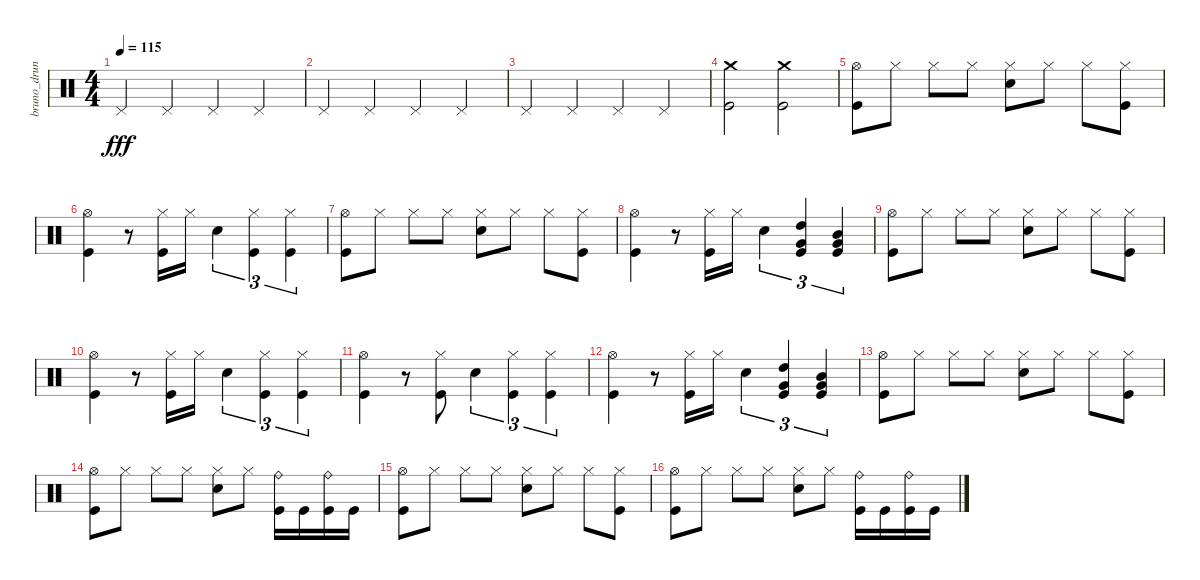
\track ("bruno_druns" "bruno_drun") {instrument percussion}
\staff {score}
\articulation defaults
\ts (4 4)
\tempo 115
\clef neutral
\ks c "Pedal Hi-Hat (hit)".4{dy fff} "Pedal Hi-Hat (hit)".4 "Pedal Hi-Hat (hit)".4 "Pedal Hi-Hat (hit)".4
|
"Pedal Hi-Hat (hit)".4 "Pedal Hi-Hat (hit)".4 "Pedal Hi-Hat (hit)".4 "Pedal Hi-Hat (hit)".4 |
"Pedal Hi-Hat (hit)".4 "Pedal Hi-Hat (hit)".4 "Pedal Hi-Hat (hit)".4 "Pedal Hi-Hat (hit)".4 |
("Kick (hit)" "Crash medium (hit)").2 ("Kick (hit)" "Crash medium (hit)").2 |
("Kick (hit)" "Hi-Hat (open)").8 "Hi-Hat (closed)".8 "Hi-Hat (closed)".8 "Hi-Hat (closed)".8 ("Electric Snare (hit)" "Hi-Hat (closed)").8 "Hi-Hat (closed)".8 "Hi-Hat (closed)".8 ("Kick (hit)" "Hi-Hat (closed)").8 |
("Kick (hit)" "Hi-Hat (open)").4 r.8 ("Kick (hit)" "Hi-Hat (closed)").16 "Hi-Hat (closed)".16 "Electric Snare (hit)".4{tu (3 2)} ("Kick (hit)" "Hi-Hat (closed)").4{tu (3 2)} ("Kick (hit)" "Hi-Hat (closed)").4{tu (3 2)} |
("Kick (hit)" "Hi-Hat (open)").8 "Hi-Hat (closed)".8 "Hi-Hat (closed)".8 "Hi-Hat (closed)".8 ("Electric Snare (hit)" "Hi-Hat (closed)").8 "Hi-Hat (closed)".8 "Hi-Hat (closed)".8 ("Kick (hit)" "Hi-Hat (closed)").8 |
("Kick (hit)" "Hi-Hat (open)").4 r.8 ("Kick (hit)" "Hi-Hat (closed)").16 "Hi-Hat (closed)".16 "Electric Snare (hit)".4{tu (3 2)} ("Kick (hit)" "Very Low Tom (hit)" "High Tom (hit)").4{tu (3 2)} ("Kick (hit)" "Very Low Tom (hit)" "Mid Tom (hit)").4{tu (3 2)} |
("Kick (hit)" "Hi-Hat (open)").8 "Hi-Hat (closed)".8 "Hi-Hat (closed)".8 "Hi-Hat (closed)".8 ("Electric Snare (hit)" "Hi-Hat (closed)").8 "Hi-Hat (closed)".8 "Hi-Hat (closed)".8 ("Kick (hit)" "Hi-Hat (closed)").8 |
("Kick (hit)" "Hi-Hat (open)").4 r.8 ("Kick (hit)" "Hi-Hat (closed)").16 "Hi-Hat (closed)".16 "Electric Snare (hit)".4{tu (3 2)} ("Kick (hit)" "Hi-Hat (closed)").4{tu (3 2)} ("Kick (hit)" "Hi-Hat (closed)").4{tu (3 2)} |
("Kick (hit)" "Hi-Hat (open)").4 r.8 ("Kick (hit)" "Hi-Hat (closed)").8 "Electric Snare (hit)".4{tu (3 2)} ("Kick (hit)" "Hi-Hat (closed)").4{tu (3 2)} ("Kick (hit)" "Hi-Hat (closed)").4{tu (3 2)} |
("Kick (hit)" "Hi-Hat (open)").4 r.8 ("Kick (hit)" "Hi-Hat (closed)").16 "Hi-Hat (closed)".16 "Electric Snare (hit)".4{tu (3 2)} ("Kick (hit)" "Very Low Tom (hit)" "High Tom (hit)").4{tu (3 2)} ("Kick (hit)" "Very Low Tom (hit)" "Mid Tom (hit)").4{tu (3 2)} |
("Kick (hit)" "Hi-Hat (open)").8 "Hi-Hat (closed)".8 "Hi-Hat (closed)".8 "Hi-Hat (closed)".8 ("Electric Snare (hit)" "Hi-Hat (closed)").8 "Hi-Hat (closed)".8 "Hi-Hat (closed)".8 ("Kick (hit)" "Hi-Hat (closed)").8 |
("Kick (hit)" "Hi-Hat (open)").8 "Hi-Hat (closed)".8 "Hi-Hat (closed)".8 "Hi-Hat (closed)".8 ("Electric Snare (hit)" "Hi-Hat (closed)").8 "Hi-Hat (closed)".8 ("Kick (hit)" "Ride (bell)").16 "Kick (hit)".16 ("Kick (hit)" "Ride (bell)").16 "Kick (hit)".16 |
("Kick (hit)" "Hi-Hat (open)").8 "Hi-Hat (closed)".8 "Hi-Hat (closed)".8 "Hi-Hat (closed)".8 ("Electric Snare (hit)" "Hi-Hat (closed)").8 "Hi-Hat (closed)".8 "Hi-Hat (closed)".8 ("Kick (hit)" "Hi-Hat (closed)").8 |
("Kick (hit)" "Hi-Hat (open)").8 "Hi-Hat (closed)".8 "Hi-Hat (closed)".8 "Hi-Hat (closed)".8 ("Electric Snare (hit)" "Hi-Hat (closed)").8 "Hi-Hat (closed)".8 ("Kick (hit)" "Ride (bell)").16 "Kick (hit)".16 ("Kick (hit)" "Ride (bell)").16 "Kick (hit)".16
